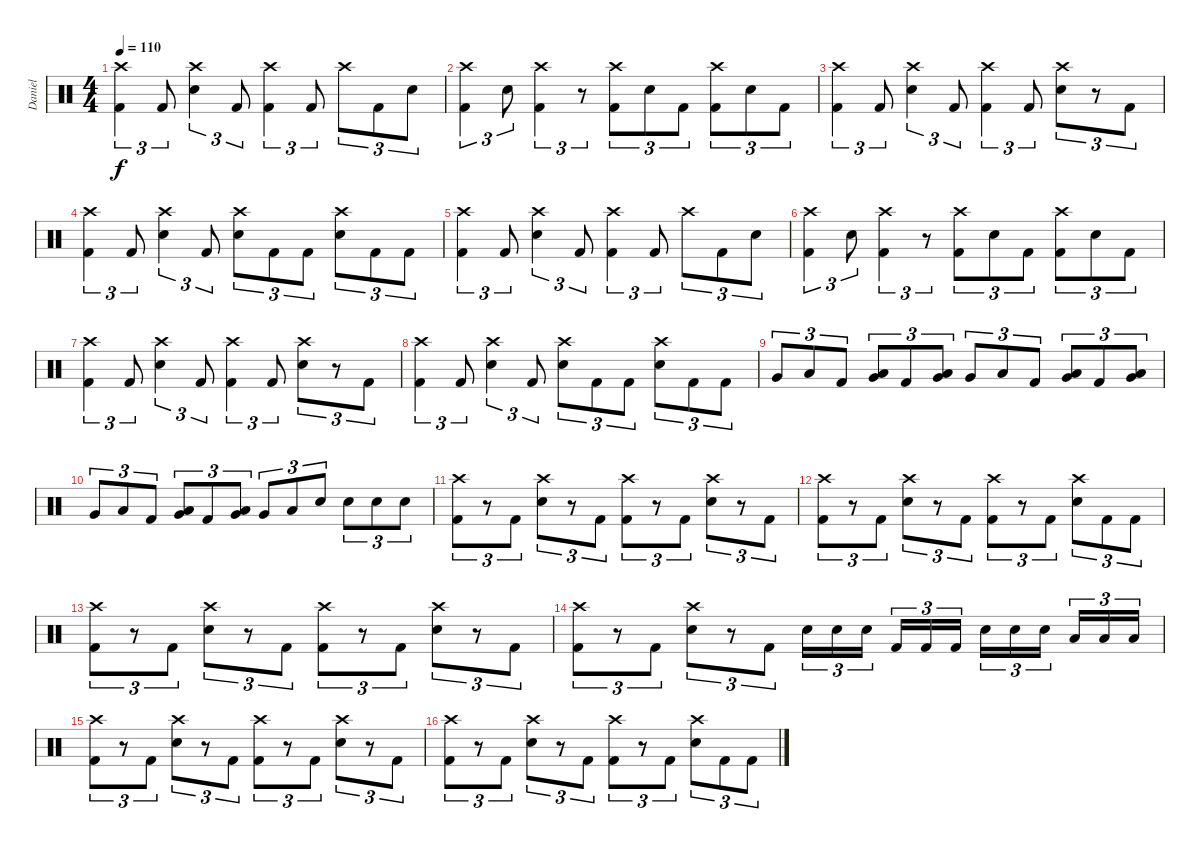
\track ("Daniel" "Daniel") {instrument percussion}
\staff {score}
\articulation defaults
\ts (4 4)
\tempo 110
\clef neutral
\ks c
("Crash high (hit)" "Kick (hit) 2").4{tu (3 2) dy f} "Kick (hit) 2".8{tu (3 2)} ("Crash high (hit)" "Electric Snare (hit)").4{tu (3 2)} "Kick (hit) 2".8{tu (3 2)} ("Crash high (hit)" "Kick (hit) 2").4{tu (3 2)} "Kick (hit) 2".8{tu (3 2)} "Crash high (hit)".8{tu (3 2)} "Kick (hit) 2".8{tu (3 2)} "Electric Snare (hit)".8{tu (3 2)} |
("Crash high (hit)" "Kick (hit) 2").4{tu (3 2)} "Electric Snare (hit)".8{tu (3 2)} ("Crash high (hit)" "Kick (hit) 2").4{tu (3 2)} r.8{tu (3 2)} ("Crash high (hit)" "Kick (hit) 2").8{tu (3 2)} "Electric Snare (hit)".8{tu (3 2)} "Kick (hit) 2".8{tu (3 2)} ("Crash high (hit)" "Kick (hit) 2").8{tu (3 2)} "Electric Snare (hit)".8{tu (3 2)} "Kick (hit) 2".8{tu (3 2)} |
("Crash high (hit)" "Kick (hit) 2").4{tu (3 2)} "Kick (hit) 2".8{tu (3 2)} ("Crash high (hit)" "Electric Snare (hit)").4{tu (3 2)} "Kick (hit) 2".8{tu (3 2)} ("Crash high (hit)" "Kick (hit) 2").4{tu (3 2)} "Kick (hit) 2".8{tu (3 2)} ("Crash high (hit)" "Electric Snare (hit)").8{tu (3 2)} r.8{tu (3 2)} "Kick (hit) 2".8{tu (3 2)} |
("Crash high (hit)" "Kick (hit) 2").4{tu (3 2)} "Kick (hit) 2".8{tu (3 2)} ("Crash high (hit)" "Electric Snare (hit)").4{tu (3 2)} "Kick (hit) 2".8{tu (3 2)} ("Crash high (hit)" "Electric Snare (hit)").8{tu (3 2)} "Kick (hit) 2".8{tu (3 2)} "Kick (hit) 2".8{tu (3 2)} ("Crash high (hit)" "Electric Snare (hit)").8{tu (3 2)} "Kick (hit) 2".8{tu (3 2)} "Kick (hit) 2".8{tu (3 2)} |
("Crash high (hit)" "Kick (hit) 2").4{tu (3 2)} "Kick (hit) 2".8{tu (3 2)} ("Crash high (hit)" "Electric Snare (hit)").4{tu (3 2)} "Kick (hit) 2".8{tu (3 2)} ("Crash high (hit)" "Kick (hit) 2").4{tu (3 2)} "Kick (hit) 2".8{tu (3 2)} "Crash high (hit)".8{tu (3 2)} "Kick (hit) 2".8{tu (3 2)} "Electric Snare (hit)".8{tu (3 2)} |
("Crash high (hit)" "Kick (hit) 2").4{tu (3 2)} "Electric Snare (hit)".8{tu (3 2)} ("Crash high (hit)" "Kick (hit) 2").4{tu (3 2)} r.8{tu (3 2)} ("Crash high (hit)" "Kick (hit) 2").8{tu (3 2)} "Electric Snare (hit)".8{tu (3 2)} "Kick (hit) 2".8{tu (3 2)} ("Crash high (hit)" "Kick (hit) 2").8{tu (3 2)} "Electric Snare (hit)".8{tu (3 2)} "Kick (hit) 2".8{tu (3 2)} |
("Crash high (hit)" "Kick (hit) 2").4{tu (3 2)} "Kick (hit) 2".8{tu (3 2)} ("Crash high (hit)" "Electric Snare (hit)").4{tu (3 2)} "Kick (hit) 2".8{tu (3 2)} ("Crash high (hit)" "Kick (hit) 2").4{tu (3 2)} "Kick (hit) 2".8{tu (3 2)} ("Crash high (hit)" "Electric Snare (hit)").8{tu (3 2)} r.8{tu (3 2)} "Kick (hit) 2".8{tu (3 2)} |
("Crash high (hit)" "Kick (hit) 2").4{tu (3 2)} "Kick (hit) 2".8{tu (3 2)} ("Crash high (hit)" "Electric Snare (hit)").4{tu (3 2)} "Kick (hit) 2".8{tu (3 2)} ("Crash high (hit)" "Electric Snare (hit)").8{tu (3 2)} "Kick (hit) 2".8{tu (3 2)} "Kick (hit) 2".8{tu (3 2)} ("Crash high (hit)" "Electric Snare (hit)").8{tu (3 2)} "Kick (hit) 2".8{tu (3 2)} "Kick (hit) 2".8{tu (3 2)} |
"Very Low Tom (hit)".8{tu (3 2)} "Low Floor Tom (hit)".8{tu (3 2)} "Kick (hit) 2".8{tu (3 2)} ("Very Low Tom (hit)" "Low Floor Tom (hit)").8{tu (3 2) bd 120} "Kick (hit) 2".8{tu (3 2)} ("Very Low Tom (hit)" "Low Floor Tom (hit)").8{tu (3 2) bd 120} "Very Low Tom (hit)".8{tu (3 2)} "Low Floor Tom (hit)".8{tu (3 2)} "Kick (hit) 2".8{tu (3 2)} ("Very Low Tom (hit)" "Low Floor Tom (hit)").8{tu (3 2) bd 120} "Kick (hit) 2".8{tu (3 2)} ("Very Low Tom (hit)" "Low Floor Tom (hit)").8{tu (3 2) bd 120} |
"Very Low Tom (hit)".8{tu (3 2)} "Low Floor Tom (hit)".8{tu (3 2)} "Kick (hit) 2".8{tu (3 2)} ("Very Low Tom (hit)" "Low Floor Tom (hit)").8{tu (3 2) bd 120} "Kick (hit) 2".8{tu (3 2)} ("Very Low Tom (hit)" "Low Floor Tom (hit)").8{tu (3 2) bd 120} "Very Low Tom (hit)".8{tu (3 2)} "Low Floor Tom (hit)".8{tu (3 2)} "Electric Snare (hit)".8{tu (3 2)} "Electric Snare (hit)".8{tu (3 2)} "Electric Snare (hit)".8{tu (3 2)} "Electric Snare (hit)".8{tu (3 2)} |
("Crash high (hit)" "Kick (hit) 2").8{tu (3 2)} r.8{tu (3 2)} "Kick (hit) 2".8{tu (3 2)} ("Crash high (hit)" "Electric Snare (hit)").8{tu (3 2)} r.8{tu (3 2)} "Kick (hit) 2".8{tu (3 2)} ("Crash high (hit)" "Kick (hit) 2").8{tu (3 2)} r.8{tu (3 2)} "Kick (hit) 2".8{tu (3 2)} ("Crash high (hit)" "Electric Snare (hit)").8{tu (3 2)} r.8{tu (3 2)} "Kick (hit) 2".8{tu (3 2)} |
("Crash high (hit)" "Kick (hit) 2").8{tu (3 2)} r.8{tu (3 2)} "Kick (hit) 2".8{tu (3 2)} ("Crash high (hit)" "Electric Snare (hit)").8{tu (3 2)} r.8{tu (3 2)} "Kick (hit) 2".8{tu (3 2)} ("Crash high (hit)" "Kick (hit) 2").8{tu (3 2)} r.8{tu (3 2)} "Kick (hit) 2".8{tu (3 2)} ("Crash high (hit)" "Electric Snare (hit)").8{tu (3 2)} "Kick (hit) 2".8{tu (3 2)} "Kick (hit) 2".8{tu (3 2)} |
("Crash high (hit)" "Kick (hit) 2").8{tu (3 2)} r.8{tu (3 2)} "Kick (hit) 2".8{tu (3 2)} ("Crash high (hit)" "Electric Snare (hit)").8{tu (3 2)} r.8{tu (3 2)} "Kick (hit) 2".8{tu (3 2)} ("Crash high (hit)" "Kick (hit) 2").8{tu (3 2)} r.8{tu (3 2)} "Kick (hit) 2".8{tu (3 2)} ("Crash high (hit)" "Electric Snare (hit)").8{tu (3 2)} r.8{tu (3 2)} "Kick (hit) 2".8{tu (3 2)} |
("Crash high (hit)" "Kick (hit) 2").8{tu (3 2)} r.8{tu (3 2)} "Kick (hit) 2".8{tu (3 2)} ("Crash high (hit)" "Electric Snare (hit)").8{tu (3 2)} r.8{tu (3 2)} "Kick (hit) 2".8{tu (3 2)} "Electric Snare (hit)".16{tu (3 2)} "Electric Snare (hit)".16{tu (3 2)} "Electric Snare (hit)".16{tu (3 2)} "Kick (hit) 2".16{tu (3 2)} "Kick (hit) 2".16{tu (3 2)} "Kick (hit) 2".16{tu (3 2)} "Electric Snare (hit)".16{tu (3 2)} "Electric Snare (hit)".16{tu (3 2)} "Electric Snare (hit)".16{tu (3 2)} "Low Tom (hit)".16{tu (3 2)} "Low Tom (hit)".16{tu (3 2)} "Low Tom (hit)".16{tu (3 2)} |
("Crash high (hit)" "Kick (hit) 2").8{tu (3 2)} r.8{tu (3 2)} "Kick (hit) 2".8{tu (3 2)} ("Crash high (hit)" "Electric Snare (hit)").8{tu (3 2)} r.8{tu (3 2)} "Kick (hit) 2".8{tu (3 2)} ("Crash high (hit)" "Kick (hit) 2").8{tu (3 2)} r.8{tu (3 2)} "Kick (hit) 2".8{tu (3 2)} ("Crash high (hit)" "Electric Snare (hit)").8{tu (3 2)} r.8{tu (3 2)} "Kick (hit) 2".8{tu (3 2)} |
("Crash high (hit)" "Kick (hit) 2").8{tu (3 2)} r.8{tu (3 2)} "Kick (hit) 2".8{tu (3 2)} ("Crash high (hit)" "Electric Snare (hit)").8{tu (3 2)} r.8{tu (3 2)} "Kick (hit) 2".8{tu (3 2)} ("Crash high (hit)" "Kick (hit) 2").8{tu (3 2)} r.8{tu (3 2)} "Kick (hit) 2".8{tu (3 2)} ("Crash high (hit)" "Electric Snare (hit)").8{tu (3 2)} "Kick (hit) 2".8{tu (3 2)} "Kick (hit) 2".8{tu (3 2)}
